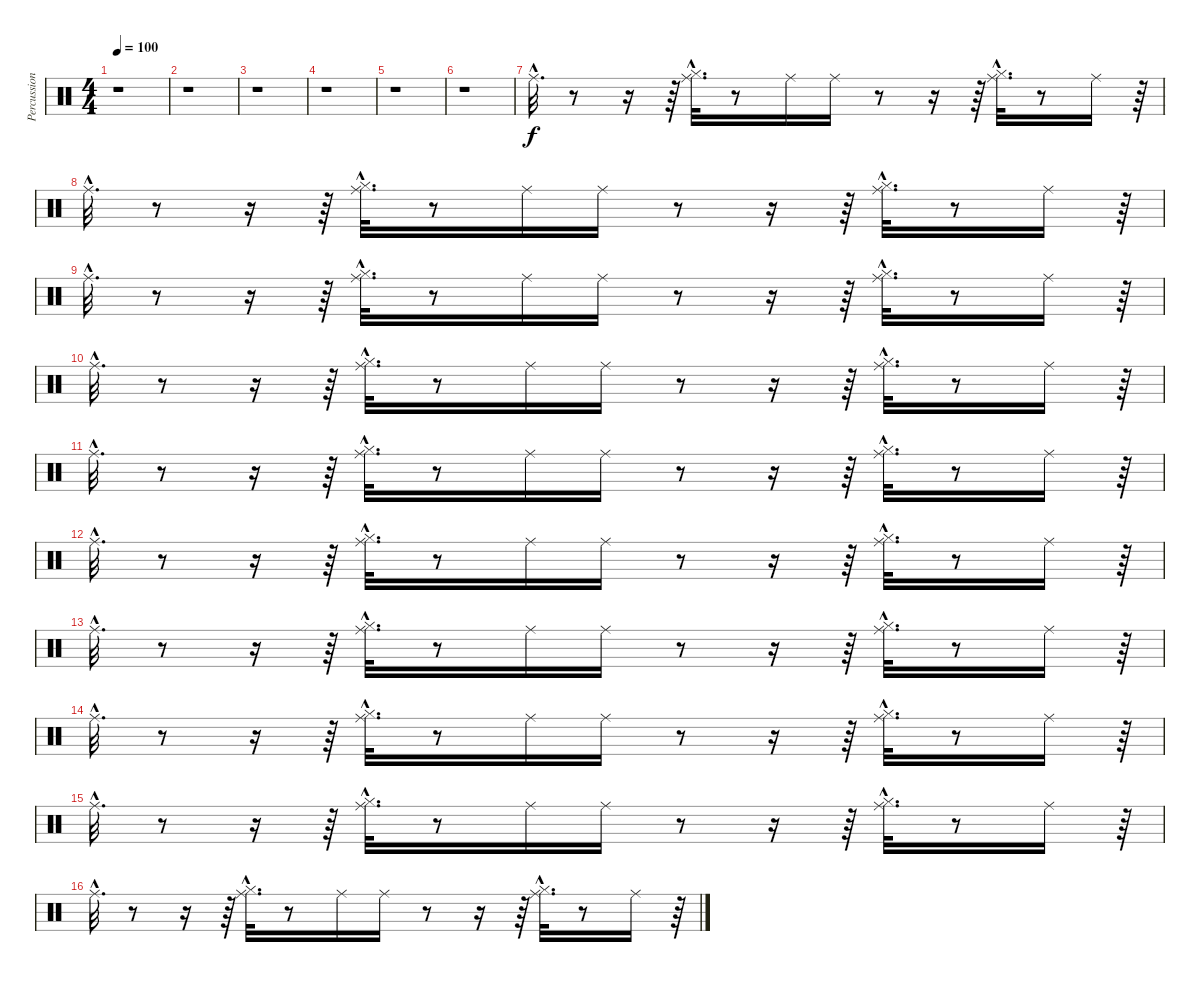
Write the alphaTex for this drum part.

\track ("Percussions" "Percussion") {instrument percussion}
\staff {score}
\articulation defaults
\ts (4 4)
\tempo 100
\clef neutral
\ks c
r.1{dy f} |
r.1 |
r.1 |
r.1 |
r.1 |
r.1 |
"Ride (middle)"{hac}.32{d} r.8 r.16 r.64 ("Hi-Hat (closed)"{hac} "Ride (middle)"{hac}).32{d} r.8 "Ride (middle)".16 "Ride (middle)".16 r.8 r.16 r.64 ("Hi-Hat (closed)"{hac} "Ride (middle)"{hac}).32{d} r.8 "Ride (middle)".16 r.64 |
"Ride (middle)"{hac}.32{d} r.8 r.16 r.64 ("Hi-Hat (closed)"{hac} "Ride (middle)"{hac}).32{d} r.8 "Ride (middle)".16 "Ride (middle)".16 r.8 r.16 r.64 ("Hi-Hat (closed)"{hac} "Ride (middle)"{hac}).32{d} r.8 "Ride (middle)".16 r.64 |
"Ride (middle)"{hac}.32{d} r.8 r.16 r.64 ("Hi-Hat (closed)"{hac} "Ride (middle)"{hac}).32{d} r.8 "Ride (middle)".16 "Ride (middle)".16 r.8 r.16 r.64 ("Hi-Hat (closed)"{hac} "Ride (middle)"{hac}).32{d} r.8 "Ride (middle)".16 r.64 |
"Ride (middle)"{hac}.32{d} r.8 r.16 r.64 ("Hi-Hat (closed)"{hac} "Ride (middle)"{hac}).32{d} r.8 "Ride (middle)".16 "Ride (middle)".16 r.8 r.16 r.64 ("Hi-Hat (closed)"{hac} "Ride (middle)"{hac}).32{d} r.8 "Ride (middle)".16 r.64 |
"Ride (middle)"{hac}.32{d} r.8 r.16 r.64 ("Hi-Hat (closed)"{hac} "Ride (middle)"{hac}).32{d} r.8 "Ride (middle)".16 "Ride (middle)".16 r.8 r.16 r.64 ("Hi-Hat (closed)"{hac} "Ride (middle)"{hac}).32{d} r.8 "Ride (middle)".16 r.64 |
"Ride (middle)"{hac}.32{d} r.8 r.16 r.64 ("Hi-Hat (closed)"{hac} "Ride (middle)"{hac}).32{d} r.8 "Ride (middle)".16 "Ride (middle)".16 r.8 r.16 r.64 ("Hi-Hat (closed)"{hac} "Ride (middle)"{hac}).32{d} r.8 "Ride (middle)".16 r.64 |
"Ride (middle)"{hac}.32{d} r.8 r.16 r.64 ("Hi-Hat (closed)"{hac} "Ride (middle)"{hac}).32{d} r.8 "Ride (middle)".16 "Ride (middle)".16 r.8 r.16 r.64 ("Hi-Hat (closed)"{hac} "Ride (middle)"{hac}).32{d} r.8 "Ride (middle)".16 r.64 |
"Ride (middle)"{hac}.32{d} r.8 r.16 r.64 ("Hi-Hat (closed)"{hac} "Ride (middle)"{hac}).32{d} r.8 "Ride (middle)".16 "Ride (middle)".16 r.8 r.16 r.64 ("Hi-Hat (closed)"{hac} "Ride (middle)"{hac}).32{d} r.8 "Ride (middle)".16 r.64 |
"Ride (middle)"{hac}.32{d} r.8 r.16 r.64 ("Hi-Hat (closed)"{hac} "Ride (middle)"{hac}).32{d} r.8 "Ride (middle)".16 "Ride (middle)".16 r.8 r.16 r.64 ("Hi-Hat (closed)"{hac} "Ride (middle)"{hac}).32{d} r.8 "Ride (middle)".16 r.64 |
"Ride (middle)"{hac}.32{d} r.8 r.16 r.64 ("Hi-Hat (closed)"{hac} "Ride (middle)"{hac}).32{d} r.8 "Ride (middle)".16 "Ride (middle)".16 r.8 r.16 r.64 ("Hi-Hat (closed)"{hac} "Ride (middle)"{hac}).32{d} r.8 "Ride (middle)".16 r.64
